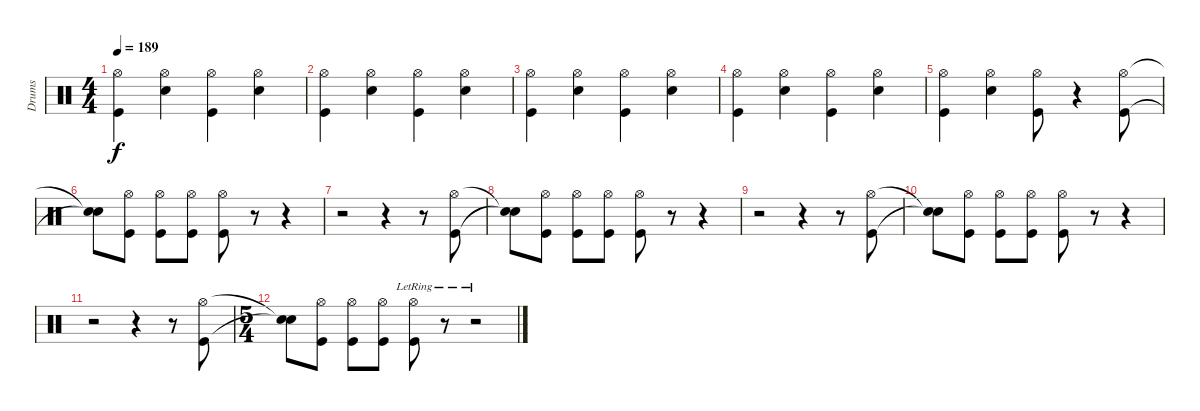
\track ("Drums" "Drums") {instrument percussion}
\staff {score}
\articulation defaults
\ts (4 4)
\tempo 189
\clef neutral
\ks c
("Kick (hit)" "Hi-Hat (open)").4{dy f} ("Snare (hit) 2" "Hi-Hat (open)").4 ("Kick (hit)" "Hi-Hat (open)").4 ("Snare (hit) 2" "Hi-Hat (open)").4 |
("Kick (hit)" "Hi-Hat (open)").4 ("Snare (hit) 2" "Hi-Hat (open)").4 ("Kick (hit)" "Hi-Hat (open)").4 ("Snare (hit) 2" "Hi-Hat (open)").4 |
("Kick (hit)" "Hi-Hat (open)").4 ("Snare (hit) 2" "Hi-Hat (open)").4 ("Kick (hit)" "Hi-Hat (open)").4 ("Snare (hit) 2" "Hi-Hat (open)").4 |
("Kick (hit)" "Hi-Hat (open)").4 ("Snare (hit) 2" "Hi-Hat (open)").4 ("Kick (hit)" "Hi-Hat (open)").4 ("Snare (hit) 2" "Hi-Hat (open)").4 |
("Kick (hit)" "Hi-Hat (open)").4 ("Snare (hit) 2" "Hi-Hat (open)").4 ("Kick (hit)" "Hi-Hat (open)").8 r.4 ("Kick (hit)" "Hi-Hat (open)").8 |
("Snare (hit)"{t} "Snare (hit)"{t}).8 ("Kick (hit)" "Hi-Hat (open)").8 ("Kick (hit)" "Hi-Hat (open)").8 ("Kick (hit)" "Hi-Hat (open)").8 ("Kick (hit)" "Hi-Hat (open)").8 r.8 r.4 |
r.2 r.4 r.8 ("Kick (hit)" "Hi-Hat (open)").8 |
("Snare (hit)"{t} "Snare (hit)"{t}).8 ("Kick (hit)" "Hi-Hat (open)").8 ("Kick (hit)" "Hi-Hat (open)").8 ("Kick (hit)" "Hi-Hat (open)").8 ("Kick (hit)" "Hi-Hat (open)").8 r.8 r.4 |
r.2 r.4 r.8 ("Kick (hit)" "Hi-Hat (open)").8 |
("Snare (hit)"{t} "Snare (hit)"{t}).8 ("Kick (hit)" "Hi-Hat (open)").8 ("Kick (hit)" "Hi-Hat (open)").8 ("Kick (hit)" "Hi-Hat (open)").8 ("Kick (hit)" "Hi-Hat (open)").8 r.8 r.4 |
r.2 r.4 r.8 ("Kick (hit)" "Hi-Hat (open)").8 |
\ts (5 4)
("Snare (hit)"{t} "Snare (hit)"{t}).8 ("Kick (hit)" "Hi-Hat (open)").8 ("Kick (hit)" "Hi-Hat (open)").8 ("Kick (hit)" "Hi-Hat (open)").8 ("Kick (hit)" "Hi-Hat (open)"{lr}).8 r.8 r.2
